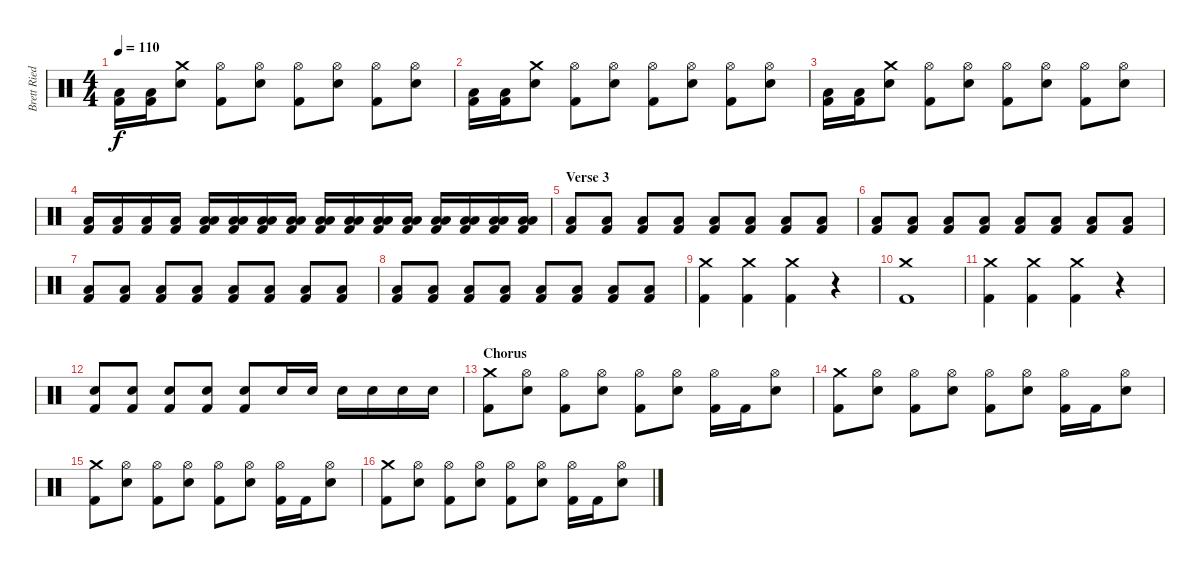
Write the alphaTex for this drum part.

\track ("Brett Ried" "Brett Ried") {instrument percussion}
\staff {score}
\articulation defaults
\ts (4 4)
\tempo 110
\clef neutral
\ks c
("Low Floor Tom (hit)" "Kick (hit) 2").16{dy f} ("Low Floor Tom (hit)" "Kick (hit) 2").16 ("Crash medium (hit)" "Snare (hit) 2").8 ("Hi-Hat (open)" "Kick (hit) 2").8 ("Hi-Hat (open)" "Snare (hit) 2").8 ("Hi-Hat (open)" "Kick (hit) 2").8 ("Hi-Hat (open)" "Snare (hit) 2").8 ("Hi-Hat (open)" "Kick (hit) 2").8 ("Hi-Hat (open)" "Snare (hit) 2").8 |
("Low Floor Tom (hit)" "Kick (hit) 2").16 ("Low Floor Tom (hit)" "Kick (hit) 2").16 ("Crash medium (hit)" "Snare (hit) 2").8 ("Hi-Hat (open)" "Kick (hit) 2").8 ("Hi-Hat (open)" "Snare (hit) 2").8 ("Hi-Hat (open)" "Kick (hit) 2").8 ("Hi-Hat (open)" "Snare (hit) 2").8 ("Hi-Hat (open)" "Kick (hit) 2").8 ("Hi-Hat (open)" "Snare (hit) 2").8 |
("Low Floor Tom (hit)" "Kick (hit) 2").16 ("Low Floor Tom (hit)" "Kick (hit) 2").16 ("Crash medium (hit)" "Snare (hit) 2").8 ("Hi-Hat (open)" "Kick (hit) 2").8 ("Hi-Hat (open)" "Snare (hit) 2").8 ("Hi-Hat (open)" "Kick (hit) 2").8 ("Hi-Hat (open)" "Snare (hit) 2").8 ("Hi-Hat (open)" "Kick (hit) 2").8 ("Hi-Hat (open)" "Snare (hit) 2").8 |
("Low Floor Tom (hit)" "Kick (hit) 2").16 ("Low Floor Tom (hit)" "Kick (hit) 2").16 ("Low Floor Tom (hit)" "Kick (hit) 2").16 ("Low Floor Tom (hit)" "Kick (hit) 2").16 ("Low Tom (hit)" "Low Floor Tom (hit)" "Kick (hit) 2").16 ("Low Tom (hit)" "Low Floor Tom (hit)" "Kick (hit) 2").16 ("Low Tom (hit)" "Low Floor Tom (hit)" "Kick (hit) 2").16 ("Low Tom (hit)" "Low Floor Tom (hit)" "Kick (hit) 2").16 ("Low Tom (hit)" "Low Floor Tom (hit)" "Kick (hit) 2").16 ("Low Tom (hit)" "Low Floor Tom (hit)" "Kick (hit) 2").16 ("Low Tom (hit)" "Low Floor Tom (hit)" "Kick (hit) 2").16 ("Low Tom (hit)" "Low Floor Tom (hit)" "Kick (hit) 2").16 ("Low Tom (hit)" "Low Floor Tom (hit)" "Kick (hit) 2").16 ("Low Tom (hit)" "Low Floor Tom (hit)" "Kick (hit) 2").16 ("Low Tom (hit)" "Low Floor Tom (hit)" "Kick (hit) 2").16 ("Low Tom (hit)" "Low Floor Tom (hit)" "Kick (hit) 2").16 |
\section ("" "Verse 3")
("Low Floor Tom (hit)" "Kick (hit) 2").8 ("Low Floor Tom (hit)" "Kick (hit) 2").8 ("Low Floor Tom (hit)" "Kick (hit) 2").8 ("Low Floor Tom (hit)" "Kick (hit) 2").8 ("Low Floor Tom (hit)" "Kick (hit) 2").8 ("Low Floor Tom (hit)" "Kick (hit) 2").8 ("Low Floor Tom (hit)" "Kick (hit) 2").8 ("Low Floor Tom (hit)" "Kick (hit) 2").8 |
("Low Floor Tom (hit)" "Kick (hit) 2").8 ("Low Floor Tom (hit)" "Kick (hit) 2").8 ("Low Floor Tom (hit)" "Kick (hit) 2").8 ("Low Floor Tom (hit)" "Kick (hit) 2").8 ("Low Floor Tom (hit)" "Kick (hit) 2").8 ("Low Floor Tom (hit)" "Kick (hit) 2").8 ("Low Floor Tom (hit)" "Kick (hit) 2").8 ("Low Floor Tom (hit)" "Kick (hit) 2").8 |
("Low Floor Tom (hit)" "Kick (hit) 2").8 ("Low Floor Tom (hit)" "Kick (hit) 2").8 ("Low Floor Tom (hit)" "Kick (hit) 2").8 ("Low Floor Tom (hit)" "Kick (hit) 2").8 ("Low Floor Tom (hit)" "Kick (hit) 2").8 ("Low Floor Tom (hit)" "Kick (hit) 2").8 ("Low Floor Tom (hit)" "Kick (hit) 2").8 ("Low Floor Tom (hit)" "Kick (hit) 2").8 |
("Low Floor Tom (hit)" "Kick (hit) 2").8 ("Low Floor Tom (hit)" "Kick (hit) 2").8 ("Low Floor Tom (hit)" "Kick (hit) 2").8 ("Low Floor Tom (hit)" "Kick (hit) 2").8 ("Low Floor Tom (hit)" "Kick (hit) 2").8 ("Low Floor Tom (hit)" "Kick (hit) 2").8 ("Low Floor Tom (hit)" "Kick (hit) 2").8 ("Low Floor Tom (hit)" "Kick (hit) 2").8 |
("Crash medium (hit)" "Kick (hit) 2").4 ("Crash medium (hit)" "Kick (hit) 2").4 ("Crash medium (hit)" "Kick (hit) 2").4 r.4 |
("Crash medium (hit)" "Kick (hit) 2").1 |
("Crash medium (hit)" "Kick (hit) 2").4 ("Crash medium (hit)" "Kick (hit) 2").4 ("Crash medium (hit)" "Kick (hit) 2").4 r.4 |
("Snare (hit) 2" "Kick (hit) 2").8 ("Snare (hit) 2" "Kick (hit) 2").8 ("Snare (hit) 2" "Kick (hit) 2").8 ("Snare (hit) 2" "Kick (hit) 2").8 ("Snare (hit) 2" "Kick (hit) 2").8 "Snare (hit) 2".16 "Snare (hit) 2".16 "Snare (hit) 2".16 "Snare (hit) 2".16 "Snare (hit) 2".16 "Snare (hit) 2".16 |
\section ("" "Chorus")
("Crash medium (hit)" "Kick (hit) 2").8 ("Hi-Hat (open)" "Snare (hit) 2").8 ("Hi-Hat (open)" "Kick (hit) 2").8 ("Hi-Hat (open)" "Snare (hit) 2").8 ("Hi-Hat (open)" "Kick (hit) 2").8 ("Hi-Hat (open)" "Snare (hit) 2").8 ("Hi-Hat (open)" "Kick (hit) 2").16 "Kick (hit) 2".16 ("Hi-Hat (open)" "Snare (hit) 2").8 |
("Crash medium (hit)" "Kick (hit) 2").8 ("Hi-Hat (open)" "Snare (hit) 2").8 ("Hi-Hat (open)" "Kick (hit) 2").8 ("Hi-Hat (open)" "Snare (hit) 2").8 ("Hi-Hat (open)" "Kick (hit) 2").8 ("Hi-Hat (open)" "Snare (hit) 2").8 ("Hi-Hat (open)" "Kick (hit) 2").16 "Kick (hit) 2".16 ("Hi-Hat (open)" "Snare (hit) 2").8 |
("Crash medium (hit)" "Kick (hit) 2").8 ("Hi-Hat (open)" "Snare (hit) 2").8 ("Hi-Hat (open)" "Kick (hit) 2").8 ("Hi-Hat (open)" "Snare (hit) 2").8 ("Hi-Hat (open)" "Kick (hit) 2").8 ("Hi-Hat (open)" "Snare (hit) 2").8 ("Hi-Hat (open)" "Kick (hit) 2").16 "Kick (hit) 2".16 ("Hi-Hat (open)" "Snare (hit) 2").8 |
("Crash medium (hit)" "Kick (hit) 2").8 ("Hi-Hat (open)" "Snare (hit) 2").8 ("Hi-Hat (open)" "Kick (hit) 2").8 ("Hi-Hat (open)" "Snare (hit) 2").8 ("Hi-Hat (open)" "Kick (hit) 2").8 ("Hi-Hat (open)" "Snare (hit) 2").8 ("Hi-Hat (open)" "Kick (hit) 2").16 "Kick (hit) 2".16 ("Hi-Hat (open)" "Snare (hit) 2").8
